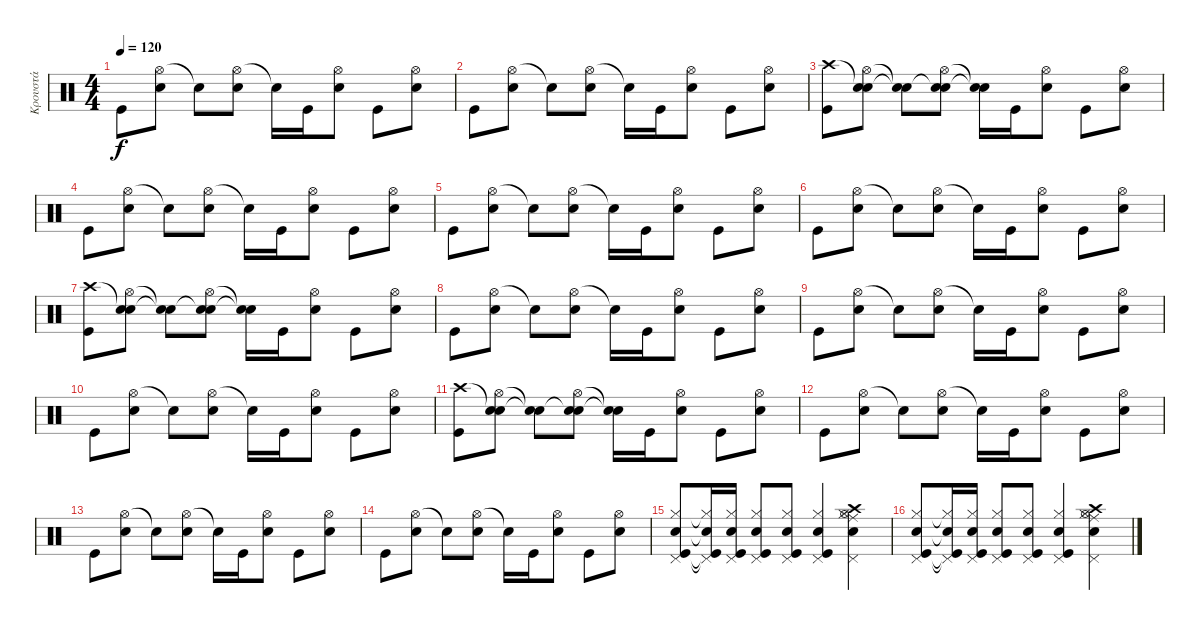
\track ("Κρουστά" "Κρουστά") {instrument percussion}
\staff {score}
\articulation defaults
\ts (4 4)
\tempo 120
\clef neutral
\ks c "Kick (hit)".8{dy f}
("Hi-Hat (open)" "Snare (hit) 2").8 "Snare (hit)"{t}.8 ("Hi-Hat (open)" "Snare (hit) 2").8 "Snare (hit)"{t}.16 "Kick (hit)".16 ("Hi-Hat (open)" "Snare (hit) 2").8 "Kick (hit)".8 ("Hi-Hat (open)" "Snare (hit) 2").8 |
"Kick (hit)".8 ("Hi-Hat (open)" "Snare (hit) 2").8 "Snare (hit)"{t}.8 ("Hi-Hat (open)" "Snare (hit) 2").8 "Snare (hit)"{t}.16 "Kick (hit)".16 ("Hi-Hat (open)" "Snare (hit) 2").8 "Kick (hit)".8 ("Hi-Hat (open)" "Snare (hit) 2").8 |
("Crash high (hit)" "Kick (hit)").8 ("Snare (hit)"{t} "Hi-Hat (open)" "Snare (hit) 2").8 ("Snare (hit)"{t} "Snare (hit)"{t}).8 ("Snare (hit)"{t} "Hi-Hat (open)" "Snare (hit) 2").8 ("Snare (hit)"{t} "Snare (hit)"{t}).16 "Kick (hit)".16 ("Hi-Hat (open)" "Snare (hit) 2").8 "Kick (hit)".8 ("Hi-Hat (open)" "Snare (hit) 2").8 |
"Kick (hit)".8 ("Hi-Hat (open)" "Snare (hit) 2").8 "Snare (hit)"{t}.8 ("Hi-Hat (open)" "Snare (hit) 2").8 "Snare (hit)"{t}.16 "Kick (hit)".16 ("Hi-Hat (open)" "Snare (hit) 2").8 "Kick (hit)".8 ("Hi-Hat (open)" "Snare (hit) 2").8 |
"Kick (hit)".8 ("Hi-Hat (open)" "Snare (hit) 2").8 "Snare (hit)"{t}.8 ("Hi-Hat (open)" "Snare (hit) 2").8 "Snare (hit)"{t}.16 "Kick (hit)".16 ("Hi-Hat (open)" "Snare (hit) 2").8 "Kick (hit)".8 ("Hi-Hat (open)" "Snare (hit) 2").8 |
"Kick (hit)".8 ("Hi-Hat (open)" "Snare (hit) 2").8 "Snare (hit)"{t}.8 ("Hi-Hat (open)" "Snare (hit) 2").8 "Snare (hit)"{t}.16 "Kick (hit)".16 ("Hi-Hat (open)" "Snare (hit) 2").8 "Kick (hit)".8 ("Hi-Hat (open)" "Snare (hit) 2").8 |
("Crash high (hit)" "Kick (hit)").8 ("Snare (hit)"{t} "Hi-Hat (open)" "Snare (hit) 2").8 ("Snare (hit)"{t} "Snare (hit)"{t}).8 ("Snare (hit)"{t} "Hi-Hat (open)" "Snare (hit) 2").8 ("Snare (hit)"{t} "Snare (hit)"{t}).16 "Kick (hit)".16 ("Hi-Hat (open)" "Snare (hit) 2").8 "Kick (hit)".8 ("Hi-Hat (open)" "Snare (hit) 2").8 |
"Kick (hit)".8 ("Hi-Hat (open)" "Snare (hit) 2").8 "Snare (hit)"{t}.8 ("Hi-Hat (open)" "Snare (hit) 2").8 "Snare (hit)"{t}.16 "Kick (hit)".16 ("Hi-Hat (open)" "Snare (hit) 2").8 "Kick (hit)".8 ("Hi-Hat (open)" "Snare (hit) 2").8 |
"Kick (hit)".8 ("Hi-Hat (open)" "Snare (hit) 2").8 "Snare (hit)"{t}.8 ("Hi-Hat (open)" "Snare (hit) 2").8 "Snare (hit)"{t}.16 "Kick (hit)".16 ("Hi-Hat (open)" "Snare (hit) 2").8 "Kick (hit)".8 ("Hi-Hat (open)" "Snare (hit) 2").8 |
"Kick (hit)".8 ("Hi-Hat (open)" "Snare (hit) 2").8 "Snare (hit)"{t}.8 ("Hi-Hat (open)" "Snare (hit) 2").8 "Snare (hit)"{t}.16 "Kick (hit)".16 ("Hi-Hat (open)" "Snare (hit) 2").8 "Kick (hit)".8 ("Hi-Hat (open)" "Snare (hit) 2").8 |
("Crash high (hit)" "Kick (hit)").8 ("Snare (hit)"{t} "Hi-Hat (open)" "Snare (hit) 2").8 ("Snare (hit)"{t} "Snare (hit)"{t}).8 ("Snare (hit)"{t} "Hi-Hat (open)" "Snare (hit) 2").8 ("Snare (hit)"{t} "Snare (hit)"{t}).16 "Kick (hit)".16 ("Hi-Hat (open)" "Snare (hit) 2").8 "Kick (hit)".8 ("Hi-Hat (open)" "Snare (hit) 2").8 |
"Kick (hit)".8 ("Hi-Hat (open)" "Snare (hit) 2").8 "Snare (hit)"{t}.8 ("Hi-Hat (open)" "Snare (hit) 2").8 "Snare (hit)"{t}.16 "Kick (hit)".16 ("Hi-Hat (open)" "Snare (hit) 2").8 "Kick (hit)".8 ("Hi-Hat (open)" "Snare (hit) 2").8 |
"Kick (hit)".8 ("Hi-Hat (open)" "Snare (hit) 2").8 "Snare (hit)"{t}.8 ("Hi-Hat (open)" "Snare (hit) 2").8 "Snare (hit)"{t}.16 "Kick (hit)".16 ("Hi-Hat (open)" "Snare (hit) 2").8 "Kick (hit)".8 ("Hi-Hat (open)" "Snare (hit) 2").8 |
"Kick (hit)".8 ("Hi-Hat (open)" "Snare (hit) 2").8 "Snare (hit)"{t}.8 ("Hi-Hat (open)" "Snare (hit) 2").8 "Snare (hit)"{t}.16 "Kick (hit)".16 ("Hi-Hat (open)" "Snare (hit) 2").8 "Kick (hit)".8 ("Hi-Hat (open)" "Snare (hit) 2").8 |
("Hi-Hat (closed)" "Pedal Hi-Hat (hit)" "Snare (hit) 2" "Kick (hit)").8 ("Hi-Hat (closed)"{t} "Pedal Hi-Hat (hit)"{t} "Snare (hit) 2"{t} "Kick (hit)"{t}).16 ("Hi-Hat (closed)" "Pedal Hi-Hat (hit)" "Snare (hit) 2" "Kick (hit)").16 ("Hi-Hat (closed)" "Pedal Hi-Hat (hit)" "Snare (hit) 2" "Kick (hit)").8 ("Hi-Hat (closed)" "Pedal Hi-Hat (hit)" "Snare (hit) 2" "Kick (hit)").8 ("Hi-Hat (closed)" "Pedal Hi-Hat (hit)" "Snare (hit) 2" "Kick (hit)").4 ("Hi-Hat (closed)" "Pedal Hi-Hat (hit)" "Snare (hit) 2" "Crash high (hit)" "Hi-Hat (open)" "Ride (middle)").4 |
("Hi-Hat (closed)" "Pedal Hi-Hat (hit)" "Snare (hit) 2" "Kick (hit)").8 ("Hi-Hat (closed)"{t} "Pedal Hi-Hat (hit)"{t} "Snare (hit) 2"{t} "Kick (hit)"{t}).16 ("Hi-Hat (closed)" "Pedal Hi-Hat (hit)" "Snare (hit) 2" "Kick (hit)").16 ("Hi-Hat (closed)" "Pedal Hi-Hat (hit)" "Snare (hit) 2" "Kick (hit)").8 ("Hi-Hat (closed)" "Pedal Hi-Hat (hit)" "Snare (hit) 2" "Kick (hit)").8 ("Hi-Hat (closed)" "Pedal Hi-Hat (hit)" "Snare (hit) 2" "Kick (hit)").4 ("Hi-Hat (closed)" "Pedal Hi-Hat (hit)" "Snare (hit) 2" "Crash high (hit)" "Hi-Hat (open)" "Ride (middle)").4
